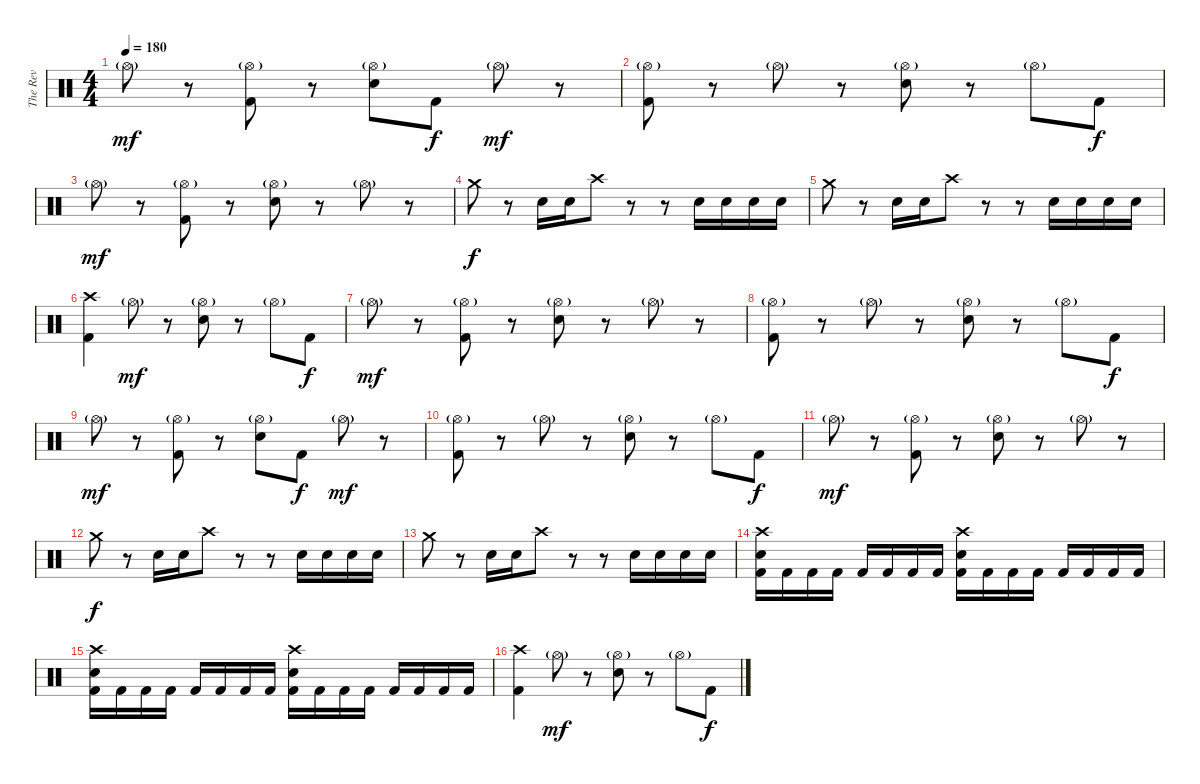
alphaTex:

\track ("The Rev" "The Rev") {instrument percussion}
\staff {score}
\articulation defaults
\ts (4 4)
\tempo 180
\clef neutral
\ks c "Hi-Hat (open)"{g}.8{dy mf}
r.8 ("Hi-Hat (open)"{g} "Kick (hit) 2").8 r.8 ("Hi-Hat (open)"{g} "Snare (hit) 2").8 "Kick (hit) 2".8{dy f} "Hi-Hat (open)"{g}.8{dy mf} r.8 |
("Hi-Hat (open)"{g} "Kick (hit) 2").8 r.8 "Hi-Hat (open)"{g}.8 r.8 ("Hi-Hat (open)"{g} "Snare (hit) 2").8 r.8 "Hi-Hat (open)"{g}.8 "Kick (hit) 2".8{dy f} |
"Hi-Hat (open)"{g}.8{dy mf} r.8 ("Hi-Hat (open)"{g} "Kick (hit) 2").8 r.8 ("Hi-Hat (open)"{g} "Snare (hit) 2").8 r.8 "Hi-Hat (open)"{g}.8 r.8 |
"Crash medium (hit)".8{dy f} r.8 "Snare (hit) 2".16 "Snare (hit) 2".16 "Crash high (hit)".8 r.8 r.8 "Snare (hit) 2".16 "Snare (hit) 2".16 "Snare (hit) 2".16 "Snare (hit) 2".16 |
"Crash medium (hit)".8 r.8 "Snare (hit) 2".16 "Snare (hit) 2".16 "Crash high (hit)".8 r.8 r.8 "Snare (hit) 2".16 "Snare (hit) 2".16 "Snare (hit) 2".16 "Snare (hit) 2".16 |
("Crash high (hit)" "Kick (hit) 2").4 "Hi-Hat (open)"{g}.8{dy mf} r.8 ("Hi-Hat (open)"{g} "Snare (hit) 2").8 r.8 "Hi-Hat (open)"{g}.8 "Kick (hit) 2".8{dy f} |
"Hi-Hat (open)"{g}.8{dy mf} r.8 ("Hi-Hat (open)"{g} "Kick (hit) 2").8 r.8 ("Hi-Hat (open)"{g} "Snare (hit) 2").8 r.8 "Hi-Hat (open)"{g}.8 r.8 |
("Hi-Hat (open)"{g} "Kick (hit) 2").8 r.8 "Hi-Hat (open)"{g}.8 r.8 ("Hi-Hat (open)"{g} "Snare (hit) 2").8 r.8 "Hi-Hat (open)"{g}.8 "Kick (hit) 2".8{dy f} |
"Hi-Hat (open)"{g}.8{dy mf} r.8 ("Hi-Hat (open)"{g} "Kick (hit) 2").8 r.8 ("Hi-Hat (open)"{g} "Snare (hit) 2").8 "Kick (hit) 2".8{dy f} "Hi-Hat (open)"{g}.8{dy mf} r.8 |
("Hi-Hat (open)"{g} "Kick (hit) 2").8 r.8 "Hi-Hat (open)"{g}.8 r.8 ("Hi-Hat (open)"{g} "Snare (hit) 2").8 r.8 "Hi-Hat (open)"{g}.8 "Kick (hit) 2".8{dy f} |
"Hi-Hat (open)"{g}.8{dy mf} r.8 ("Hi-Hat (open)"{g} "Kick (hit) 2").8 r.8 ("Hi-Hat (open)"{g} "Snare (hit) 2").8 r.8 "Hi-Hat (open)"{g}.8 r.8 |
"Crash medium (hit)".8{dy f} r.8 "Snare (hit) 2".16 "Snare (hit) 2".16 "Crash high (hit)".8 r.8 r.8 "Snare (hit) 2".16 "Snare (hit) 2".16 "Snare (hit) 2".16 "Snare (hit) 2".16 |
"Crash medium (hit)".8 r.8 "Snare (hit) 2".16 "Snare (hit) 2".16 "Crash high (hit)".8 r.8 r.8 "Snare (hit) 2".16 "Snare (hit) 2".16 "Snare (hit) 2".16 "Snare (hit) 2".16 |
("Crash high (hit)" "Snare (hit) 2" "Kick (hit) 2").16 "Kick (hit) 2".16 "Kick (hit) 2".16 "Kick (hit) 2".16 "Kick (hit) 2".16 "Kick (hit) 2".16 "Kick (hit) 2".16 "Kick (hit) 2".16 ("Crash high (hit)" "Snare (hit) 2" "Kick (hit) 2").16 "Kick (hit) 2".16 "Kick (hit) 2".16 "Kick (hit) 2".16 "Kick (hit) 2".16 "Kick (hit) 2".16 "Kick (hit) 2".16 "Kick (hit) 2".16 |
("Crash high (hit)" "Snare (hit) 2" "Kick (hit) 2").16 "Kick (hit) 2".16 "Kick (hit) 2".16 "Kick (hit) 2".16 "Kick (hit) 2".16 "Kick (hit) 2".16 "Kick (hit) 2".16 "Kick (hit) 2".16 ("Crash high (hit)" "Snare (hit) 2" "Kick (hit) 2").16 "Kick (hit) 2".16 "Kick (hit) 2".16 "Kick (hit) 2".16 "Kick (hit) 2".16 "Kick (hit) 2".16 "Kick (hit) 2".16 "Kick (hit) 2".16 |
("Crash high (hit)" "Kick (hit) 2").4 "Hi-Hat (open)"{g}.8{dy mf} r.8 ("Hi-Hat (open)"{g} "Snare (hit) 2").8 r.8 "Hi-Hat (open)"{g}.8 "Kick (hit) 2".8{dy f}
